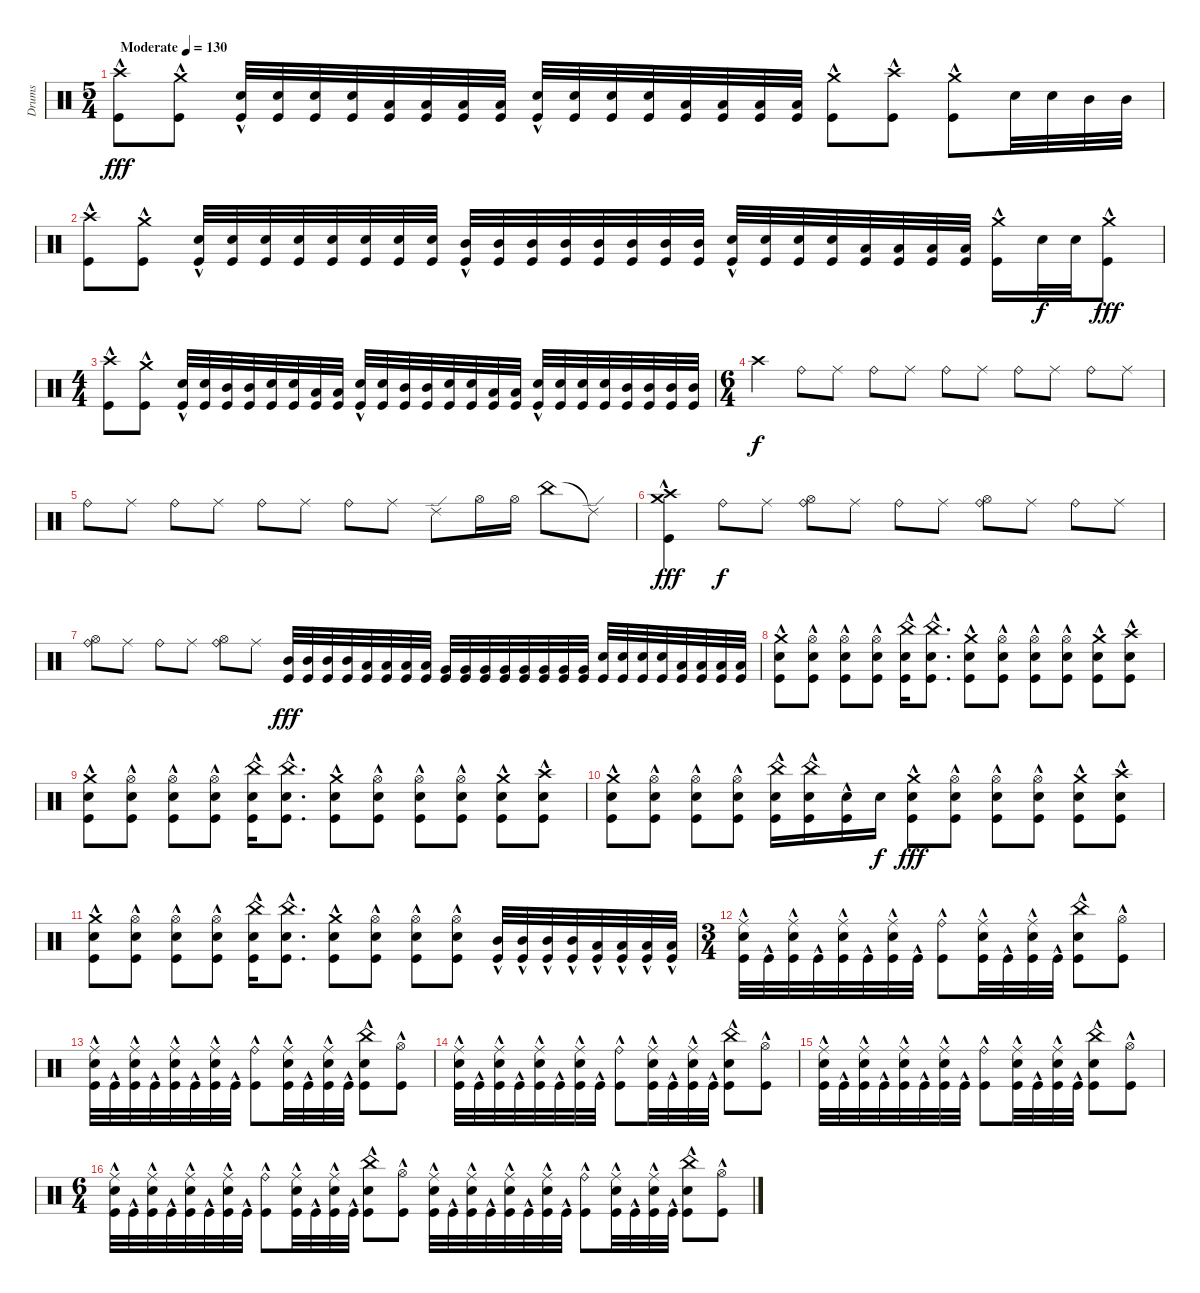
\track ("Drums" "Drums") {instrument percussion}
\staff {score}
\articulation defaults
\ts (5 4)
\tempo (130 "Moderate")
\clef neutral
\ks c
("Crash high (hit)" "Kick (hit)"{hac}).8{dy fff} ("Crash medium (hit)" "Kick (hit)"{hac}).8 ("Snare (hit) 2" "Kick (hit)"{hac}).32 ("Snare (hit) 2" "Kick (hit)").32 ("Snare (hit) 2" "Kick (hit)").32 ("Snare (hit) 2" "Kick (hit)").32 ("Low Tom (hit)" "Kick (hit)").32 ("Low Tom (hit)" "Kick (hit)").32 ("Low Tom (hit)" "Kick (hit)").32 ("Low Tom (hit)" "Kick (hit)").32 ("Snare (hit) 2" "Kick (hit)"{hac}).32 ("Snare (hit) 2" "Kick (hit)").32 ("Snare (hit) 2" "Kick (hit)").32 ("Snare (hit) 2" "Kick (hit)").32 ("Low Tom (hit)" "Kick (hit)").32 ("Low Tom (hit)" "Kick (hit)").32 ("Low Tom (hit)" "Kick (hit)").32 ("Low Tom (hit)" "Kick (hit)").32 ("Crash medium (hit)" "Kick (hit)"{hac}).8 ("Crash high (hit)" "Kick (hit)"{hac}).8 ("Crash medium (hit)" "Kick (hit)"{hac}).8 "Snare (hit) 2".32 "Snare (hit) 2".32 "Mid Tom (hit)".32 "Mid Tom (hit)".32 |
("Crash high (hit)" "Kick (hit)"{hac}).8 ("Crash medium (hit)" "Kick (hit)"{hac}).8 ("Snare (hit) 2" "Kick (hit)"{hac}).32 ("Snare (hit) 2" "Kick (hit)").32 ("Snare (hit) 2" "Kick (hit)").32 ("Snare (hit) 2" "Kick (hit)").32 ("Snare (hit) 2" "Kick (hit)").32 ("Snare (hit) 2" "Kick (hit)").32 ("Snare (hit) 2" "Kick (hit)").32 ("Snare (hit) 2" "Kick (hit)").32 ("Mid Tom (hit)" "Kick (hit)"{hac}).32 ("Mid Tom (hit)" "Kick (hit)").32 ("Mid Tom (hit)" "Kick (hit)").32 ("Mid Tom (hit)" "Kick (hit)").32 ("Mid Tom (hit)" "Kick (hit)").32 ("Mid Tom (hit)" "Kick (hit)").32 ("Mid Tom (hit)" "Kick (hit)").32 ("Mid Tom (hit)" "Kick (hit)").32 ("Snare (hit) 2" "Kick (hit)"{hac}).32 ("Snare (hit) 2" "Kick (hit)").32 ("Snare (hit) 2" "Kick (hit)").32 ("Snare (hit) 2" "Kick (hit)").32 ("Low Tom (hit)" "Kick (hit)").32 ("Low Tom (hit)" "Kick (hit)").32 ("Low Tom (hit)" "Kick (hit)").32 ("Low Tom (hit)" "Kick (hit)").32 ("Crash medium (hit)" "Kick (hit)"{hac}).16 "Snare (hit) 2".32{dy f} "Snare (hit) 2".32 ("Crash medium (hit)" "Kick (hit)"{hac}).8{dy fff} |
\ts (4 4)
("Crash high (hit)" "Kick (hit)"{hac}).8 ("Crash medium (hit)" "Kick (hit)"{hac}).8 ("Snare (hit) 2" "Kick (hit)"{hac}).32 ("Snare (hit) 2" "Kick (hit)").32 ("Mid Tom (hit)" "Kick (hit)").32 ("Mid Tom (hit)" "Kick (hit)").32 ("Snare (hit) 2" "Kick (hit)").32 ("Snare (hit) 2" "Kick (hit)").32 ("Low Tom (hit)" "Kick (hit)").32 ("Low Tom (hit)" "Kick (hit)").32 ("Snare (hit) 2" "Kick (hit)"{hac}).32 ("Snare (hit) 2" "Kick (hit)").32 ("Mid Tom (hit)" "Kick (hit)").32 ("Mid Tom (hit)" "Kick (hit)").32 ("Snare (hit) 2" "Kick (hit)").32 ("Snare (hit) 2" "Kick (hit)").32 ("Low Tom (hit)" "Kick (hit)").32 ("Low Tom (hit)" "Kick (hit)").32 ("Snare (hit) 2" "Kick (hit)"{hac}).32 ("Snare (hit) 2" "Kick (hit)").32 ("Snare (hit) 2" "Kick (hit)").32 ("Snare (hit) 2" "Kick (hit)").32 ("Mid Tom (hit)" "Kick (hit)").32 ("Mid Tom (hit)" "Kick (hit)").32 ("Mid Tom (hit)" "Kick (hit)").32 ("Mid Tom (hit)" "Kick (hit)").32 |
\ts (6 4)
"Crash high (hit)".4{dy f} "Ride (bell)".8 "Ride (middle)".8 "Ride (bell)".8 "Ride (middle)".8 "Ride (bell)".8 "Ride (middle)".8 "Ride (bell)".8 "Ride (middle)".8 "Ride (bell)".8 "Ride (middle)".8 |
"Ride (bell)".8 "Ride (middle)".8 "Ride (bell)".8 "Ride (middle)".8 "Ride (bell)".8 "Ride (middle)".8 "Ride (bell)".8 "Ride (middle)".8 "Ride (edge) 2".8 "Hi-Hat (open)".16 "Hi-Hat (open)".16 "China (hit)".8 "Ride (edge) 2"{t}.8 |
("Crash high (hit)" "Crash medium (hit)" "Kick (hit)"{hac}).4{dy fff} "Ride (bell)".8{dy f} "Ride (middle)".8 ("Hi-Hat (open)" "Ride (bell)").8 "Ride (middle)".8 "Ride (bell)".8 "Ride (middle)".8 ("Hi-Hat (open)" "Ride (bell)").8 "Ride (middle)".8 "Ride (bell)".8 "Ride (middle)".8 |
("Hi-Hat (open)" "Ride (bell)").8 "Ride (middle)".8 "Ride (bell)".8 "Ride (middle)".8 ("Hi-Hat (open)" "Ride (bell)").8 "Ride (middle)".8 ("Mid Tom (hit)" "Kick (hit)").32{dy fff} ("Mid Tom (hit)" "Kick (hit)").32 ("Mid Tom (hit)" "Kick (hit)").32 ("Mid Tom (hit)" "Kick (hit)").32 ("Low Tom (hit)" "Kick (hit)").32 ("Low Tom (hit)" "Kick (hit)").32 ("Low Tom (hit)" "Kick (hit)").32 ("Low Tom (hit)" "Kick (hit)").32 ("Very Low Tom (hit)" "Kick (hit)").32 ("Very Low Tom (hit)" "Kick (hit)").32 ("Very Low Tom (hit)" "Kick (hit)").32 ("Very Low Tom (hit)" "Kick (hit)").32 ("Very Low Tom (hit)" "Kick (hit)").32 ("Very Low Tom (hit)" "Kick (hit)").32 ("Very Low Tom (hit)" "Kick (hit)").32 ("Very Low Tom (hit)" "Kick (hit)").32 ("Snare (hit) 2" "Kick (hit)").32 ("Snare (hit) 2" "Kick (hit)").32 ("Snare (hit) 2" "Kick (hit)").32 ("Snare (hit) 2" "Kick (hit)").32 ("Low Tom (hit)" "Kick (hit)").32 ("Low Tom (hit)" "Kick (hit)").32 ("Low Tom (hit)" "Kick (hit)").32 ("Low Tom (hit)" "Kick (hit)").32 |
("Crash medium (hit)" "Snare (hit) 2" "Kick (hit)"{hac}).8 ("Hi-Hat (open)" "Snare (hit) 2" "Kick (hit)"{hac}).8 ("Hi-Hat (open)" "Snare (hit) 2" "Kick (hit)"{hac}).8 ("Hi-Hat (open)" "Snare (hit) 2" "Kick (hit)"{hac}).8 ("China (hit)" "Snare (hit) 2" "Kick (hit)"{hac}).16 ("China (hit)" "Snare (hit) 2" "Kick (hit)"{hac}).8{d} ("Crash medium (hit)" "Snare (hit) 2" "Kick (hit)"{hac}).8 ("Hi-Hat (open)" "Snare (hit) 2" "Kick (hit)"{hac}).8 ("Hi-Hat (open)" "Snare (hit) 2" "Kick (hit)"{hac}).8 ("Hi-Hat (open)" "Snare (hit) 2" "Kick (hit)"{hac}).8 ("Crash medium (hit)" "Snare (hit) 2" "Kick (hit)"{hac}).8 ("Crash high (hit)" "Snare (hit) 2" "Kick (hit)"{hac}).8 |
("Crash medium (hit)" "Snare (hit) 2" "Kick (hit)"{hac}).8 ("Hi-Hat (open)" "Snare (hit) 2" "Kick (hit)"{hac}).8 ("Hi-Hat (open)" "Snare (hit) 2" "Kick (hit)"{hac}).8 ("Hi-Hat (open)" "Snare (hit) 2" "Kick (hit)"{hac}).8 ("China (hit)" "Snare (hit) 2" "Kick (hit)"{hac}).16 ("China (hit)" "Snare (hit) 2" "Kick (hit)"{hac}).8{d} ("Crash medium (hit)" "Snare (hit) 2" "Kick (hit)"{hac}).8 ("Hi-Hat (open)" "Snare (hit) 2" "Kick (hit)"{hac}).8 ("Hi-Hat (open)" "Snare (hit) 2" "Kick (hit)"{hac}).8 ("Hi-Hat (open)" "Snare (hit) 2" "Kick (hit)"{hac}).8 ("Crash medium (hit)" "Snare (hit) 2" "Kick (hit)"{hac}).8 ("Crash high (hit)" "Snare (hit) 2" "Kick (hit)"{hac}).8 |
("Crash medium (hit)" "Snare (hit) 2" "Kick (hit)"{hac}).8 ("Hi-Hat (open)" "Snare (hit) 2" "Kick (hit)"{hac}).8 ("Hi-Hat (open)" "Snare (hit) 2" "Kick (hit)"{hac}).8 ("Hi-Hat (open)" "Snare (hit) 2" "Kick (hit)"{hac}).8 ("China (hit)" "Snare (hit) 2" "Kick (hit)"{hac}).16 ("China (hit)" "Snare (hit) 2" "Kick (hit)"{hac}).16 ("Snare (hit) 2" "Kick (hit)"{hac}).16 "Snare (hit) 2".16{dy f} ("Crash medium (hit)" "Snare (hit) 2" "Kick (hit)"{hac}).8{dy fff} ("Hi-Hat (open)" "Snare (hit) 2" "Kick (hit)"{hac}).8 ("Hi-Hat (open)" "Snare (hit) 2" "Kick (hit)"{hac}).8 ("Hi-Hat (open)" "Snare (hit) 2" "Kick (hit)"{hac}).8 ("Crash medium (hit)" "Snare (hit) 2" "Kick (hit)"{hac}).8 ("Crash high (hit)" "Snare (hit) 2" "Kick (hit)"{hac}).8 |
("Crash medium (hit)" "Snare (hit) 2" "Kick (hit)"{hac}).8 ("Hi-Hat (open)" "Snare (hit) 2" "Kick (hit)"{hac}).8 ("Hi-Hat (open)" "Snare (hit) 2" "Kick (hit)"{hac}).8 ("Hi-Hat (open)" "Snare (hit) 2" "Kick (hit)"{hac}).8 ("China (hit)" "Snare (hit) 2" "Kick (hit)"{hac}).16 ("China (hit)" "Snare (hit) 2" "Kick (hit)"{hac}).8{d} ("Crash medium (hit)" "Snare (hit) 2" "Kick (hit)"{hac}).8 ("Hi-Hat (open)" "Snare (hit) 2" "Kick (hit)"{hac}).8 ("Hi-Hat (open)" "Snare (hit) 2" "Kick (hit)"{hac}).8 ("Hi-Hat (open)" "Snare (hit) 2" "Kick (hit)"{hac}).8 ("Mid Tom (hit)" "Kick (hit)"{hac}).32 ("Mid Tom (hit)" "Kick (hit)"{hac}).32 ("Mid Tom (hit)" "Kick (hit)"{hac}).32 ("Mid Tom (hit)" "Kick (hit)"{hac}).32 ("Low Tom (hit)" "Kick (hit)"{hac}).32 ("Low Tom (hit)" "Kick (hit)"{hac}).32 ("Low Tom (hit)" "Kick (hit)"{hac}).32 ("Low Tom (hit)" "Kick (hit)"{hac}).32 |
\ts (3 4)
("Ride (middle)"{hac} "Snare (hit) 2" "Kick (hit)"{hac}).32 "Kick (hit)"{hac}.32 ("Ride (middle)" "Snare (hit) 2" "Kick (hit)"{hac}).32 "Kick (hit)"{hac}.32 ("Ride (middle)" "Snare (hit) 2" "Kick (hit)"{hac}).32 "Kick (hit)"{hac}.32 ("Ride (middle)" "Snare (hit) 2" "Kick (hit)"{hac}).32 "Kick (hit)"{hac}.32 ("Ride (bell)"{hac} "Kick (hit)"{hac}).8 ("Ride (middle)" "Snare (hit) 2" "Kick (hit)"{hac}).32 "Kick (hit)"{hac}.32 ("Ride (middle)" "Snare (hit) 2" "Kick (hit)"{hac}).32 "Kick (hit)"{hac}.32 ("China (hit)" "Snare (hit) 2" "Kick (hit)"{hac}).8 ("Hi-Hat (open)" "Kick (hit)"{hac}).8 |
("Ride (middle)"{hac} "Snare (hit) 2" "Kick (hit)"{hac}).32 "Kick (hit)"{hac}.32 ("Ride (middle)" "Snare (hit) 2" "Kick (hit)"{hac}).32 "Kick (hit)"{hac}.32 ("Ride (middle)" "Snare (hit) 2" "Kick (hit)"{hac}).32 "Kick (hit)"{hac}.32 ("Ride (middle)" "Snare (hit) 2" "Kick (hit)"{hac}).32 "Kick (hit)"{hac}.32 ("Ride (bell)"{hac} "Kick (hit)"{hac}).8 ("Ride (middle)" "Snare (hit) 2" "Kick (hit)"{hac}).32 "Kick (hit)"{hac}.32 ("Ride (middle)" "Snare (hit) 2" "Kick (hit)"{hac}).32 "Kick (hit)"{hac}.32 ("China (hit)" "Snare (hit) 2" "Kick (hit)"{hac}).8 ("Hi-Hat (open)" "Kick (hit)"{hac}).8 |
("Ride (middle)"{hac} "Snare (hit) 2" "Kick (hit)"{hac}).32 "Kick (hit)"{hac}.32 ("Ride (middle)" "Snare (hit) 2" "Kick (hit)"{hac}).32 "Kick (hit)"{hac}.32 ("Ride (middle)" "Snare (hit) 2" "Kick (hit)"{hac}).32 "Kick (hit)"{hac}.32 ("Ride (middle)" "Snare (hit) 2" "Kick (hit)"{hac}).32 "Kick (hit)"{hac}.32 ("Ride (bell)"{hac} "Kick (hit)"{hac}).8 ("Ride (middle)" "Snare (hit) 2" "Kick (hit)"{hac}).32 "Kick (hit)"{hac}.32 ("Ride (middle)" "Snare (hit) 2" "Kick (hit)"{hac}).32 "Kick (hit)"{hac}.32 ("China (hit)" "Snare (hit) 2" "Kick (hit)"{hac}).8 ("Hi-Hat (open)" "Kick (hit)"{hac}).8 |
("Ride (middle)"{hac} "Snare (hit) 2" "Kick (hit)"{hac}).32 "Kick (hit)"{hac}.32 ("Ride (middle)" "Snare (hit) 2" "Kick (hit)"{hac}).32 "Kick (hit)"{hac}.32 ("Ride (middle)" "Snare (hit) 2" "Kick (hit)"{hac}).32 "Kick (hit)"{hac}.32 ("Ride (middle)" "Snare (hit) 2" "Kick (hit)"{hac}).32 "Kick (hit)"{hac}.32 ("Ride (bell)"{hac} "Kick (hit)"{hac}).8 ("Ride (middle)" "Snare (hit) 2" "Kick (hit)"{hac}).32 "Kick (hit)"{hac}.32 ("Ride (middle)" "Snare (hit) 2" "Kick (hit)"{hac}).32 "Kick (hit)"{hac}.32 ("China (hit)" "Snare (hit) 2" "Kick (hit)"{hac}).8 ("Hi-Hat (open)" "Kick (hit)"{hac}).8 |
\ts (6 4)
("Ride (middle)"{hac} "Snare (hit) 2" "Kick (hit)"{hac}).32 "Kick (hit)"{hac}.32 ("Ride (middle)" "Snare (hit) 2" "Kick (hit)"{hac}).32 "Kick (hit)"{hac}.32 ("Ride (middle)" "Snare (hit) 2" "Kick (hit)"{hac}).32 "Kick (hit)"{hac}.32 ("Ride (middle)" "Snare (hit) 2" "Kick (hit)"{hac}).32 "Kick (hit)"{hac}.32 ("Ride (bell)"{hac} "Kick (hit)"{hac}).8 ("Ride (middle)" "Snare (hit) 2" "Kick (hit)"{hac}).32 "Kick (hit)"{hac}.32 ("Ride (middle)" "Snare (hit) 2" "Kick (hit)"{hac}).32 "Kick (hit)"{hac}.32 ("China (hit)" "Snare (hit) 2" "Kick (hit)"{hac}).8 ("Hi-Hat (open)" "Kick (hit)"{hac}).8 ("Ride (middle)"{hac} "Snare (hit) 2" "Kick (hit)"{hac}).32 "Kick (hit)"{hac}.32 ("Ride (middle)" "Snare (hit) 2" "Kick (hit)"{hac}).32 "Kick (hit)"{hac}.32 ("Ride (middle)" "Snare (hit) 2" "Kick (hit)"{hac}).32 "Kick (hit)"{hac}.32 ("Ride (middle)" "Snare (hit) 2" "Kick (hit)"{hac}).32 "Kick (hit)"{hac}.32 ("Ride (bell)"{hac} "Kick (hit)"{hac}).8 ("Ride (middle)" "Snare (hit) 2" "Kick (hit)"{hac}).32 "Kick (hit)"{hac}.32 ("Ride (middle)" "Snare (hit) 2" "Kick (hit)"{hac}).32 "Kick (hit)"{hac}.32 ("China (hit)" "Snare (hit) 2" "Kick (hit)"{hac}).8 ("Hi-Hat (open)" "Kick (hit)"{hac}).8
